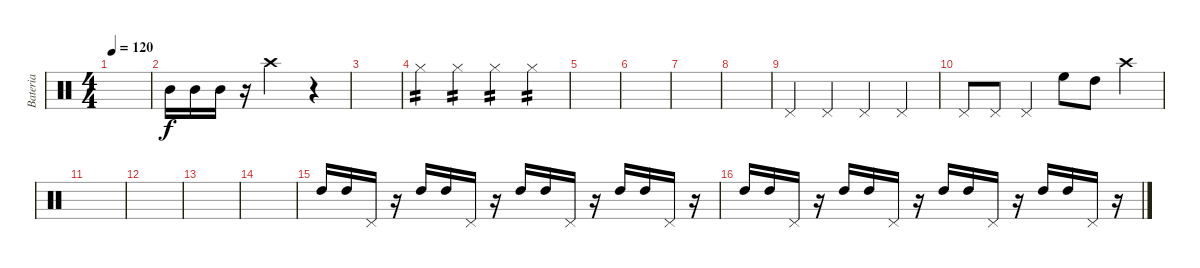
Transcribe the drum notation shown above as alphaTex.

\track ("Bateria" "Bateria") {instrument percussion}
\staff {score}
\articulation defaults
\ts (4 4)
\tempo 120
\clef neutral
\ks c
|
"Mid Tom (hit)".16 "Mid Tom (hit)".16 "Mid Tom (hit)".16 r.16 "Crash high (hit)".2 r.4 |
|
"Hi-Hat (closed)".4{tp 2} "Hi-Hat (closed)".4{tp 2} "Hi-Hat (closed)".4{tp 2} "Hi-Hat (closed)".4{tp 2} |
|
|
|
|
"Pedal Hi-Hat (hit)".4 "Pedal Hi-Hat (hit)".4 "Pedal Hi-Hat (hit)".4 "Pedal Hi-Hat (hit)".4 |
"Pedal Hi-Hat (hit)".8 "Pedal Hi-Hat (hit)".8 "Pedal Hi-Hat (hit)".4 "High Floor Tom (hit)".8 "High Tom (hit)".8 "Crash high (hit)".4 |
|
|
|
|
"High Tom (hit)".16 "High Tom (hit)".16 "Pedal Hi-Hat (hit)".16 r.16 "High Tom (hit)".16 "High Tom (hit)".16 "Pedal Hi-Hat (hit)".16 r.16 "High Tom (hit)".16 "High Tom (hit)".16 "Pedal Hi-Hat (hit)".16 r.16 "High Tom (hit)".16 "High Tom (hit)".16 "Pedal Hi-Hat (hit)".16 r.16 |
"High Tom (hit)".16 "High Tom (hit)".16 "Pedal Hi-Hat (hit)".16 r.16 "High Tom (hit)".16 "High Tom (hit)".16 "Pedal Hi-Hat (hit)".16 r.16 "High Tom (hit)".16 "High Tom (hit)".16 "Pedal Hi-Hat (hit)".16 r.16 "High Tom (hit)".16 "High Tom (hit)".16 "Pedal Hi-Hat (hit)".16 r.16
